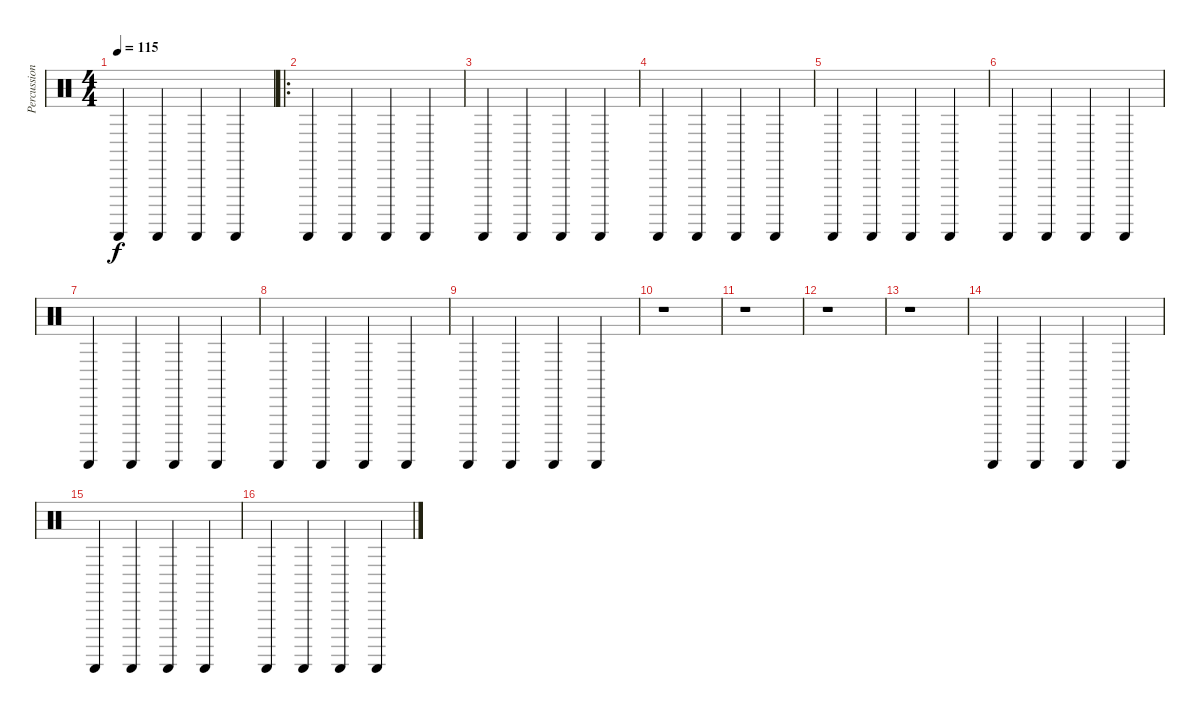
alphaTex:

\track ("Percussion" "Percussion") {instrument percussion}
\staff {score}
\articulation defaults
\ts (4 4)
\tempo 115
\clef neutral
\ks c "Guiro (scrap-return)".4{dy f} "Guiro (scrap-return)".4 "Guiro (scrap-return)".4 "Guiro (scrap-return)".4
|
\ro "Guiro (scrap-return)".4 "Guiro (scrap-return)".4 "Guiro (scrap-return)".4 "Guiro (scrap-return)".4
|
"Guiro (scrap-return)".4 "Guiro (scrap-return)".4 "Guiro (scrap-return)".4 "Guiro (scrap-return)".4 |
"Guiro (scrap-return)".4 "Guiro (scrap-return)".4 "Guiro (scrap-return)".4 "Guiro (scrap-return)".4 |
"Guiro (scrap-return)".4 "Guiro (scrap-return)".4 "Guiro (scrap-return)".4 "Guiro (scrap-return)".4 |
"Guiro (scrap-return)".4 "Guiro (scrap-return)".4 "Guiro (scrap-return)".4 "Guiro (scrap-return)".4 |
"Guiro (scrap-return)".4 "Guiro (scrap-return)".4 "Guiro (scrap-return)".4 "Guiro (scrap-return)".4 |
"Guiro (scrap-return)".4 "Guiro (scrap-return)".4 "Guiro (scrap-return)".4 "Guiro (scrap-return)".4 |
"Guiro (scrap-return)".4 "Guiro (scrap-return)".4 "Guiro (scrap-return)".4 "Guiro (scrap-return)".4 |
r.1 |
r.1 |
r.1 |
r.1 |
"Guiro (scrap-return)".4 "Guiro (scrap-return)".4 "Guiro (scrap-return)".4 "Guiro (scrap-return)".4 |
"Guiro (scrap-return)".4 "Guiro (scrap-return)".4 "Guiro (scrap-return)".4 "Guiro (scrap-return)".4 |
"Guiro (scrap-return)".4 "Guiro (scrap-return)".4 "Guiro (scrap-return)".4 "Guiro (scrap-return)".4
